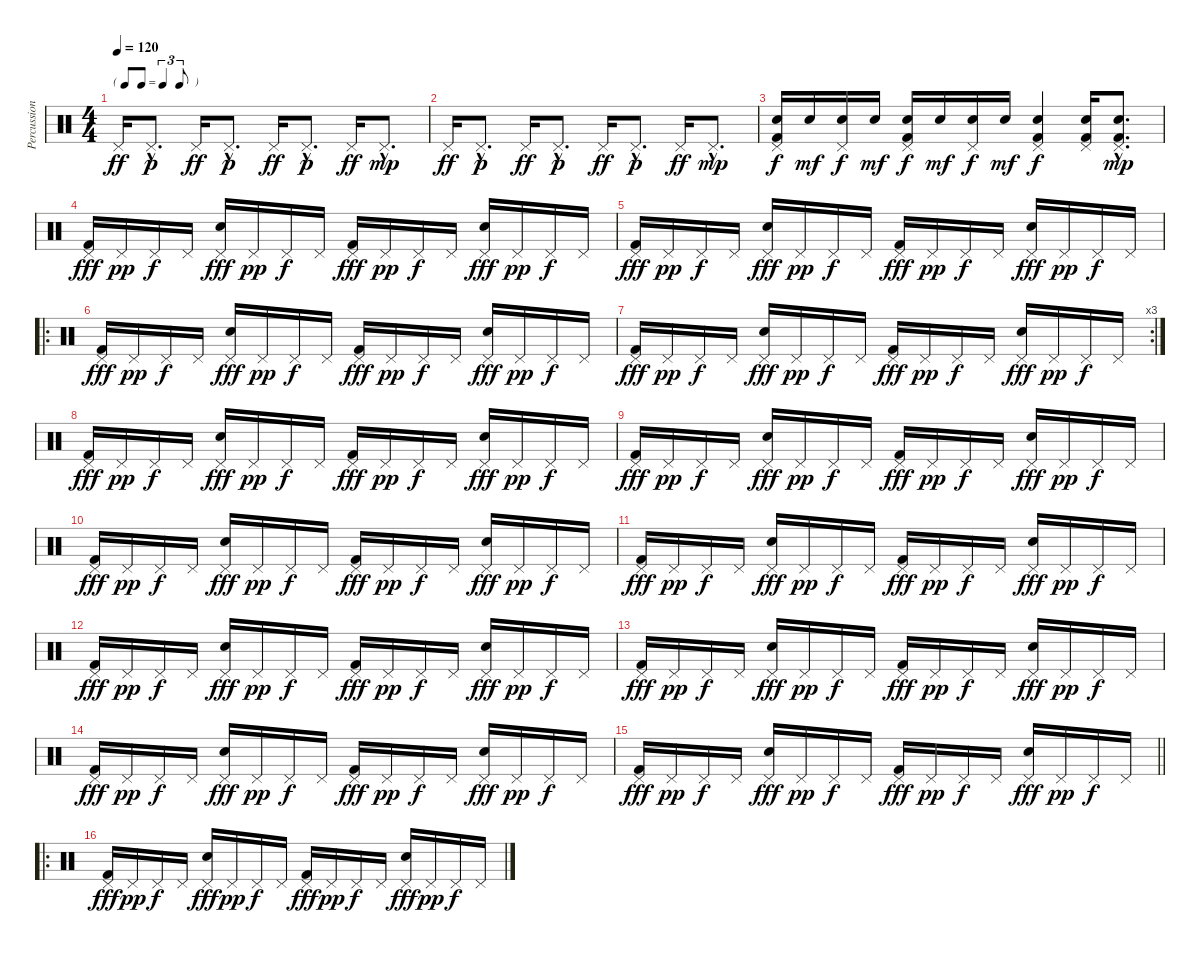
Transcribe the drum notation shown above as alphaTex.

\track ("Percussions" "Percussion") {instrument percussion}
\staff {score}
\articulation defaults
\ts (4 4)
\tf triplet8th
\tempo 120
\clef neutral
\ks c "Pedal Hi-Hat (hit)".16{dy ff volume 3} "Pedal Hi-Hat (hit)"{hac}.8{d dy p} "Pedal Hi-Hat (hit)".16{dy ff volume 5} "Pedal Hi-Hat (hit)"{hac}.8{d dy p} "Pedal Hi-Hat (hit)".16{dy ff volume 6} "Pedal Hi-Hat (hit)"{hac}.8{d dy p} "Pedal Hi-Hat (hit)".16{dy ff volume 9} "Pedal Hi-Hat (hit)"{hac}.8{d dy mp}
|
"Pedal Hi-Hat (hit)".16{dy ff volume 9} "Pedal Hi-Hat (hit)"{hac}.8{d dy p} "Pedal Hi-Hat (hit)".16{dy ff} "Pedal Hi-Hat (hit)"{hac}.8{d dy p} "Pedal Hi-Hat (hit)".16{dy ff} "Pedal Hi-Hat (hit)"{hac}.8{d dy p} "Pedal Hi-Hat (hit)".16{dy ff} "Pedal Hi-Hat (hit)"{hac}.8{d dy mp} |
("Snare (hit) 2" "Pedal Hi-Hat (hit)" "Kick (hit) 2").16{dy f} "Snare (hit) 2".16{dy mf} ("Snare (hit) 2" "Pedal Hi-Hat (hit)").16{dy f} "Snare (hit) 2".16{dy mf} ("Snare (hit) 2" "Pedal Hi-Hat (hit)" "Kick (hit) 2").16{dy f} "Snare (hit) 2".16{dy mf} ("Snare (hit) 2" "Pedal Hi-Hat (hit)").16{dy f} "Snare (hit) 2".16{dy mf} ("Snare (hit) 2" "Pedal Hi-Hat (hit)" "Kick (hit) 2").4{dy f} ("Snare (hit) 2" "Pedal Hi-Hat (hit)" "Kick (hit) 2").16 ("Snare (hit) 2"{hac} "Pedal Hi-Hat (hit)"{hac} "Kick (hit) 2"{hac}).8{d dy mp} |
("Pedal Hi-Hat (hit)" "Kick (hit) 2").16{dy fff} "Pedal Hi-Hat (hit)".16{dy pp} "Pedal Hi-Hat (hit)".16{dy f} "Pedal Hi-Hat (hit)".16 ("Pedal Hi-Hat (hit)" "Hand Clap (hit)").16{dy fff} "Pedal Hi-Hat (hit)".16{dy pp} "Pedal Hi-Hat (hit)".16{dy f} "Pedal Hi-Hat (hit)".16 ("Pedal Hi-Hat (hit)" "Kick (hit) 2").16{dy fff} "Pedal Hi-Hat (hit)".16{dy pp} "Pedal Hi-Hat (hit)".16{dy f} "Pedal Hi-Hat (hit)".16 ("Pedal Hi-Hat (hit)" "Hand Clap (hit)").16{dy fff} "Pedal Hi-Hat (hit)".16{dy pp} "Pedal Hi-Hat (hit)".16{dy f} "Pedal Hi-Hat (hit)".16 |
("Pedal Hi-Hat (hit)" "Kick (hit) 2").16{dy fff} "Pedal Hi-Hat (hit)".16{dy pp} "Pedal Hi-Hat (hit)".16{dy f} "Pedal Hi-Hat (hit)".16 ("Pedal Hi-Hat (hit)" "Hand Clap (hit)").16{dy fff} "Pedal Hi-Hat (hit)".16{dy pp} "Pedal Hi-Hat (hit)".16{dy f} "Pedal Hi-Hat (hit)".16 ("Pedal Hi-Hat (hit)" "Kick (hit) 2").16{dy fff} "Pedal Hi-Hat (hit)".16{dy pp} "Pedal Hi-Hat (hit)".16{dy f} "Pedal Hi-Hat (hit)".16 ("Pedal Hi-Hat (hit)" "Hand Clap (hit)").16{dy fff} "Pedal Hi-Hat (hit)".16{dy pp} "Pedal Hi-Hat (hit)".16{dy f} "Pedal Hi-Hat (hit)".16 |
\ro
("Pedal Hi-Hat (hit)" "Kick (hit) 2").16{dy fff} "Pedal Hi-Hat (hit)".16{dy pp} "Pedal Hi-Hat (hit)".16{dy f} "Pedal Hi-Hat (hit)".16 ("Pedal Hi-Hat (hit)" "Hand Clap (hit)").16{dy fff} "Pedal Hi-Hat (hit)".16{dy pp} "Pedal Hi-Hat (hit)".16{dy f} "Pedal Hi-Hat (hit)".16 ("Pedal Hi-Hat (hit)" "Kick (hit) 2").16{dy fff} "Pedal Hi-Hat (hit)".16{dy pp} "Pedal Hi-Hat (hit)".16{dy f} "Pedal Hi-Hat (hit)".16 ("Pedal Hi-Hat (hit)" "Hand Clap (hit)").16{dy fff} "Pedal Hi-Hat (hit)".16{dy pp} "Pedal Hi-Hat (hit)".16{dy f} "Pedal Hi-Hat (hit)".16 |
\rc 3
("Pedal Hi-Hat (hit)" "Kick (hit) 2").16{dy fff} "Pedal Hi-Hat (hit)".16{dy pp} "Pedal Hi-Hat (hit)".16{dy f} "Pedal Hi-Hat (hit)".16 ("Pedal Hi-Hat (hit)" "Hand Clap (hit)").16{dy fff} "Pedal Hi-Hat (hit)".16{dy pp} "Pedal Hi-Hat (hit)".16{dy f} "Pedal Hi-Hat (hit)".16 ("Pedal Hi-Hat (hit)" "Kick (hit) 2").16{dy fff} "Pedal Hi-Hat (hit)".16{dy pp} "Pedal Hi-Hat (hit)".16{dy f} "Pedal Hi-Hat (hit)".16 ("Pedal Hi-Hat (hit)" "Hand Clap (hit)").16{dy fff} "Pedal Hi-Hat (hit)".16{dy pp} "Pedal Hi-Hat (hit)".16{dy f} "Pedal Hi-Hat (hit)".16 |
("Pedal Hi-Hat (hit)" "Kick (hit) 2").16{dy fff} "Pedal Hi-Hat (hit)".16{dy pp} "Pedal Hi-Hat (hit)".16{dy f} "Pedal Hi-Hat (hit)".16 ("Pedal Hi-Hat (hit)" "Hand Clap (hit)").16{dy fff} "Pedal Hi-Hat (hit)".16{dy pp} "Pedal Hi-Hat (hit)".16{dy f} "Pedal Hi-Hat (hit)".16 ("Pedal Hi-Hat (hit)" "Kick (hit) 2").16{dy fff} "Pedal Hi-Hat (hit)".16{dy pp} "Pedal Hi-Hat (hit)".16{dy f} "Pedal Hi-Hat (hit)".16 ("Pedal Hi-Hat (hit)" "Hand Clap (hit)").16{dy fff} "Pedal Hi-Hat (hit)".16{dy pp} "Pedal Hi-Hat (hit)".16{dy f} "Pedal Hi-Hat (hit)".16 |
("Pedal Hi-Hat (hit)" "Kick (hit) 2").16{dy fff} "Pedal Hi-Hat (hit)".16{dy pp} "Pedal Hi-Hat (hit)".16{dy f} "Pedal Hi-Hat (hit)".16 ("Pedal Hi-Hat (hit)" "Hand Clap (hit)").16{dy fff} "Pedal Hi-Hat (hit)".16{dy pp} "Pedal Hi-Hat (hit)".16{dy f} "Pedal Hi-Hat (hit)".16 ("Pedal Hi-Hat (hit)" "Kick (hit) 2").16{dy fff} "Pedal Hi-Hat (hit)".16{dy pp} "Pedal Hi-Hat (hit)".16{dy f} "Pedal Hi-Hat (hit)".16 ("Pedal Hi-Hat (hit)" "Hand Clap (hit)").16{dy fff} "Pedal Hi-Hat (hit)".16{dy pp} "Pedal Hi-Hat (hit)".16{dy f} "Pedal Hi-Hat (hit)".16 |
("Pedal Hi-Hat (hit)" "Kick (hit) 2").16{dy fff} "Pedal Hi-Hat (hit)".16{dy pp} "Pedal Hi-Hat (hit)".16{dy f} "Pedal Hi-Hat (hit)".16 ("Pedal Hi-Hat (hit)" "Hand Clap (hit)").16{dy fff} "Pedal Hi-Hat (hit)".16{dy pp} "Pedal Hi-Hat (hit)".16{dy f} "Pedal Hi-Hat (hit)".16 ("Pedal Hi-Hat (hit)" "Kick (hit) 2").16{dy fff} "Pedal Hi-Hat (hit)".16{dy pp} "Pedal Hi-Hat (hit)".16{dy f} "Pedal Hi-Hat (hit)".16 ("Pedal Hi-Hat (hit)" "Hand Clap (hit)").16{dy fff} "Pedal Hi-Hat (hit)".16{dy pp} "Pedal Hi-Hat (hit)".16{dy f} "Pedal Hi-Hat (hit)".16 |
("Pedal Hi-Hat (hit)" "Kick (hit) 2").16{dy fff} "Pedal Hi-Hat (hit)".16{dy pp} "Pedal Hi-Hat (hit)".16{dy f} "Pedal Hi-Hat (hit)".16 ("Pedal Hi-Hat (hit)" "Hand Clap (hit)").16{dy fff} "Pedal Hi-Hat (hit)".16{dy pp} "Pedal Hi-Hat (hit)".16{dy f} "Pedal Hi-Hat (hit)".16 ("Pedal Hi-Hat (hit)" "Kick (hit) 2").16{dy fff} "Pedal Hi-Hat (hit)".16{dy pp} "Pedal Hi-Hat (hit)".16{dy f} "Pedal Hi-Hat (hit)".16 ("Pedal Hi-Hat (hit)" "Hand Clap (hit)").16{dy fff} "Pedal Hi-Hat (hit)".16{dy pp} "Pedal Hi-Hat (hit)".16{dy f} "Pedal Hi-Hat (hit)".16 |
("Pedal Hi-Hat (hit)" "Kick (hit) 2").16{dy fff} "Pedal Hi-Hat (hit)".16{dy pp} "Pedal Hi-Hat (hit)".16{dy f} "Pedal Hi-Hat (hit)".16 ("Pedal Hi-Hat (hit)" "Hand Clap (hit)").16{dy fff} "Pedal Hi-Hat (hit)".16{dy pp} "Pedal Hi-Hat (hit)".16{dy f} "Pedal Hi-Hat (hit)".16 ("Pedal Hi-Hat (hit)" "Kick (hit) 2").16{dy fff} "Pedal Hi-Hat (hit)".16{dy pp} "Pedal Hi-Hat (hit)".16{dy f} "Pedal Hi-Hat (hit)".16 ("Pedal Hi-Hat (hit)" "Hand Clap (hit)").16{dy fff} "Pedal Hi-Hat (hit)".16{dy pp} "Pedal Hi-Hat (hit)".16{dy f} "Pedal Hi-Hat (hit)".16 |
("Pedal Hi-Hat (hit)" "Kick (hit) 2").16{dy fff} "Pedal Hi-Hat (hit)".16{dy pp} "Pedal Hi-Hat (hit)".16{dy f} "Pedal Hi-Hat (hit)".16 ("Pedal Hi-Hat (hit)" "Hand Clap (hit)").16{dy fff} "Pedal Hi-Hat (hit)".16{dy pp} "Pedal Hi-Hat (hit)".16{dy f} "Pedal Hi-Hat (hit)".16 ("Pedal Hi-Hat (hit)" "Kick (hit) 2").16{dy fff} "Pedal Hi-Hat (hit)".16{dy pp} "Pedal Hi-Hat (hit)".16{dy f} "Pedal Hi-Hat (hit)".16 ("Pedal Hi-Hat (hit)" "Hand Clap (hit)").16{dy fff} "Pedal Hi-Hat (hit)".16{dy pp} "Pedal Hi-Hat (hit)".16{dy f} "Pedal Hi-Hat (hit)".16 |
("Pedal Hi-Hat (hit)" "Kick (hit) 2").16{dy fff} "Pedal Hi-Hat (hit)".16{dy pp} "Pedal Hi-Hat (hit)".16{dy f} "Pedal Hi-Hat (hit)".16 ("Pedal Hi-Hat (hit)" "Hand Clap (hit)").16{dy fff} "Pedal Hi-Hat (hit)".16{dy pp} "Pedal Hi-Hat (hit)".16{dy f} "Pedal Hi-Hat (hit)".16 ("Pedal Hi-Hat (hit)" "Kick (hit) 2").16{dy fff} "Pedal Hi-Hat (hit)".16{dy pp} "Pedal Hi-Hat (hit)".16{dy f} "Pedal Hi-Hat (hit)".16 ("Pedal Hi-Hat (hit)" "Hand Clap (hit)").16{dy fff} "Pedal Hi-Hat (hit)".16{dy pp} "Pedal Hi-Hat (hit)".16{dy f} "Pedal Hi-Hat (hit)".16 |
\barLineRight lightlight
("Pedal Hi-Hat (hit)" "Kick (hit) 2").16{dy fff} "Pedal Hi-Hat (hit)".16{dy pp} "Pedal Hi-Hat (hit)".16{dy f} "Pedal Hi-Hat (hit)".16 ("Pedal Hi-Hat (hit)" "Hand Clap (hit)").16{dy fff} "Pedal Hi-Hat (hit)".16{dy pp} "Pedal Hi-Hat (hit)".16{dy f} "Pedal Hi-Hat (hit)".16 ("Pedal Hi-Hat (hit)" "Kick (hit) 2").16{dy fff} "Pedal Hi-Hat (hit)".16{dy pp} "Pedal Hi-Hat (hit)".16{dy f} "Pedal Hi-Hat (hit)".16 ("Pedal Hi-Hat (hit)" "Hand Clap (hit)").16{dy fff} "Pedal Hi-Hat (hit)".16{dy pp} "Pedal Hi-Hat (hit)".16{dy f} "Pedal Hi-Hat (hit)".16 |
\ro
("Pedal Hi-Hat (hit)" "Kick (hit) 2").16{dy fff} "Pedal Hi-Hat (hit)".16{dy pp} "Pedal Hi-Hat (hit)".16{dy f} "Pedal Hi-Hat (hit)".16 ("Pedal Hi-Hat (hit)" "Hand Clap (hit)").16{dy fff} "Pedal Hi-Hat (hit)".16{dy pp} "Pedal Hi-Hat (hit)".16{dy f} "Pedal Hi-Hat (hit)".16 ("Pedal Hi-Hat (hit)" "Kick (hit) 2").16{dy fff} "Pedal Hi-Hat (hit)".16{dy pp} "Pedal Hi-Hat (hit)".16{dy f} "Pedal Hi-Hat (hit)".16 ("Pedal Hi-Hat (hit)" "Hand Clap (hit)").16{dy fff} "Pedal Hi-Hat (hit)".16{dy pp} "Pedal Hi-Hat (hit)".16{dy f} "Pedal Hi-Hat (hit)".16
